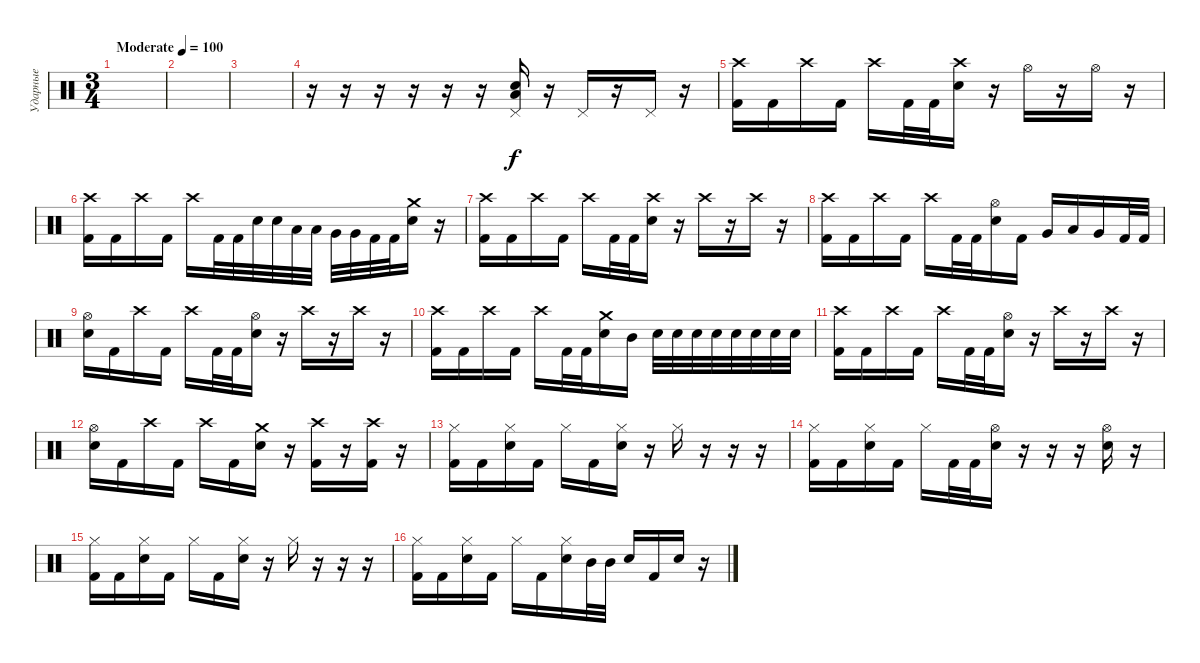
\track ("Ударные" "Ударные") {instrument percussion}
\staff {score}
\articulation defaults
\ts (3 4)
\tempo (100 "Moderate")
\clef neutral
\ks c
|
|
|
r.16 r.16 r.16 r.16 r.16 r.16 ("Pedal Hi-Hat (hit)" "Low Tom (hit)" "Electric Snare (hit)").16 r.16 "Pedal Hi-Hat (hit)".16 r.16 "Pedal Hi-Hat (hit)".16 r.16 |
("Crash high (hit)" "Kick (hit) 2").16 "Kick (hit) 2".16 "Crash high (hit)".16 "Kick (hit) 2".16 "Crash high (hit)".16 "Kick (hit) 2".32 "Kick (hit) 2".32 ("Crash high (hit)" "Electric Snare (hit)").16 r.16 "Hi-Hat (open)".16 r.16 "Hi-Hat (open)".16 r.16 |
("Crash high (hit)" "Kick (hit) 2").16 "Kick (hit) 2".16 "Crash high (hit)".16 "Kick (hit) 2".16 "Crash high (hit)".16 "Kick (hit) 2".32 "Kick (hit) 2".32 "Electric Snare (hit)".32 "Electric Snare (hit)".32 "Low Tom (hit)".32 "Low Tom (hit)".32 "Very Low Tom (hit)".32 "Very Low Tom (hit)".32 "Kick (hit) 2".32 "Kick (hit) 2".32 ("Crash medium (hit)" "Electric Snare (hit)").16 r.16 |
("Crash high (hit)" "Kick (hit) 2").16 "Kick (hit) 2".16 "Crash high (hit)".16 "Kick (hit) 2".16 "Crash high (hit)".16 "Kick (hit) 2".32 "Kick (hit) 2".32 ("Crash high (hit)" "Electric Snare (hit)").16 r.16 "Crash high (hit)".16 r.16 "Crash high (hit)".16 r.16 |
("Crash high (hit)" "Kick (hit) 2").16 "Kick (hit) 2".16 "Crash high (hit)".16 "Kick (hit) 2".16 "Crash high (hit)".16 "Kick (hit) 2".32 "Kick (hit) 2".32 ("Hi-Hat (open)" "Electric Snare (hit)").16 "Kick (hit) 2".16 "Very Low Tom (hit)".16 "Low Tom (hit)".16 "Very Low Tom (hit)".16 "Kick (hit) 2".32 "Kick (hit) 2".32 |
("Hi-Hat (open)" "Electric Snare (hit)").16 "Kick (hit) 2".16 "Crash high (hit)".16 "Kick (hit) 2".16 "Crash high (hit)".16 "Kick (hit) 2".32 "Kick (hit) 2".32 ("Hi-Hat (open)" "Electric Snare (hit)").16 r.16 "Crash high (hit)".16 r.16 "Crash high (hit)".16 r.16 |
("Crash high (hit)" "Kick (hit) 2").16 "Kick (hit) 2".16 "Crash high (hit)".16 "Kick (hit) 2".16 "Crash high (hit)".16 "Kick (hit) 2".32 "Kick (hit) 2".32 ("Crash medium (hit)" "Electric Snare (hit)").16 "Mid Tom (hit)".16 "Electric Snare (hit)".32 "Electric Snare (hit)".32 "Electric Snare (hit)".32 "Electric Snare (hit)".32 "Electric Snare (hit)".32 "Electric Snare (hit)".32 "Electric Snare (hit)".32 "Electric Snare (hit)".32 |
("Crash high (hit)" "Kick (hit) 2").16 "Kick (hit) 2".16 "Crash high (hit)".16 "Kick (hit) 2".16 "Crash high (hit)".16 "Kick (hit) 2".32 "Kick (hit) 2".32 ("Hi-Hat (open)" "Electric Snare (hit)").16 r.16 "Crash high (hit)".16 r.16 "Crash high (hit)".16 r.16 |
("Hi-Hat (open)" "Electric Snare (hit)").16 "Kick (hit) 2".16 "Crash high (hit)".16 "Kick (hit) 2".16 "Crash high (hit)".16 "Kick (hit) 2".16 ("Crash medium (hit)" "Electric Snare (hit)").16 r.16 ("Crash high (hit)" "Kick (hit) 2").16 r.16 ("Crash high (hit)" "Kick (hit) 2").16 r.16 |
("Hi-Hat (closed)" "Kick (hit) 2").16 "Kick (hit) 2".16 ("Hi-Hat (closed)" "Electric Snare (hit)").16 "Kick (hit) 2".16 "Hi-Hat (closed)".16 "Kick (hit) 2".16 ("Hi-Hat (closed)" "Electric Snare (hit)").16 r.16 "Hi-Hat (closed)".16 r.16 r.16 r.16 |
("Hi-Hat (closed)" "Kick (hit) 2").16 "Kick (hit) 2".16 ("Hi-Hat (closed)" "Electric Snare (hit)").16 "Kick (hit) 2".16 "Hi-Hat (closed)".16 "Kick (hit) 2".32 "Kick (hit) 2".32 ("Hi-Hat (open)" "Electric Snare (hit)").16 r.16 r.16 r.16 ("Hi-Hat (open)" "Electric Snare (hit)").16 r.16 |
("Hi-Hat (closed)" "Kick (hit) 2").16 "Kick (hit) 2".16 ("Hi-Hat (closed)" "Electric Snare (hit)").16 "Kick (hit) 2".16 "Hi-Hat (closed)".16 "Kick (hit) 2".16 ("Hi-Hat (closed)" "Electric Snare (hit)").16 r.16 "Hi-Hat (closed)".16 r.16 r.16 r.16 |
("Hi-Hat (closed)" "Kick (hit) 2").16 "Kick (hit) 2".16 ("Hi-Hat (closed)" "Electric Snare (hit)").16 "Kick (hit) 2".16 "Hi-Hat (closed)".16 "Kick (hit) 2".16 ("Hi-Hat (closed)" "Electric Snare (hit)").16 "Mid Tom (hit)".32 "Mid Tom (hit)".32 "Electric Snare (hit)".16 "Kick (hit) 2".16 "Electric Snare (hit)".16 r.16
